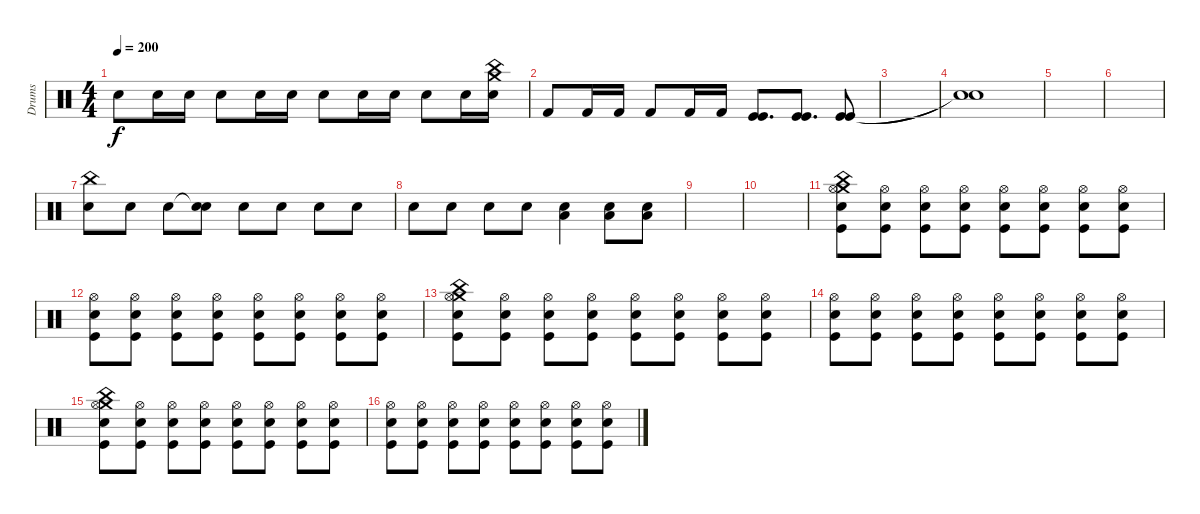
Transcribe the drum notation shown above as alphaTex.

\track ("Drums" "Drums") {instrument percussion}
\staff {score}
\articulation defaults
\ts (4 4)
\tempo 200
\clef neutral
\ks c "Snare (hit) 2".8{dy f} "Snare (hit) 2".16 "Snare (hit) 2".16 "Snare (hit) 2".8 "Snare (hit) 2".16 "Snare (hit) 2".16 "Snare (hit) 2".8 "Snare (hit) 2".16 "Snare (hit) 2".16 "Snare (hit) 2".8 "Snare (hit) 2".16
("Snare (hit) 2" "Crash medium (hit)" "China (hit)").16 |
"Kick (hit) 2".8 "Kick (hit) 2".16 "Kick (hit) 2".16 "Kick (hit) 2".8 "Kick (hit) 2".16 "Kick (hit) 2".16 ("Kick (hit)" "Kick (hit)").8{d} ("Kick (hit)" "Kick (hit)").8{d} ("Kick (hit)" "Kick (hit)").8 |
|
("Snare (hit)"{t} "Snare (hit)"{t}).1 |
|
|
("China (hit)" "Snare (hit) 2").8 "Snare (hit) 2".8 "Snare (hit) 2".8 ("Snare (hit)"{t} "Snare (hit) 2").8 "Snare (hit) 2".8 "Snare (hit) 2".8 "Snare (hit) 2".8 "Snare (hit) 2".8 |
"Snare (hit) 2".8 "Snare (hit) 2".8 "Snare (hit) 2".8 "Snare (hit) 2".8 ("Electric Snare (hit)" "Low Floor Tom (hit)").4 ("Electric Snare (hit)" "Low Floor Tom (hit)").8 ("Electric Snare (hit)" "Low Floor Tom (hit)").8 |
|
|
("Electric Snare (hit)" "China (hit)" "Crash medium (hit)" "Hi-Hat (open)" "Kick (hit)").8 ("Electric Snare (hit)" "Hi-Hat (open)" "Kick (hit)").8 ("Electric Snare (hit)" "Hi-Hat (open)" "Kick (hit)").8 ("Electric Snare (hit)" "Hi-Hat (open)" "Kick (hit)").8 ("Electric Snare (hit)" "Hi-Hat (open)" "Kick (hit)").8 ("Electric Snare (hit)" "Hi-Hat (open)" "Kick (hit)").8 ("Electric Snare (hit)" "Hi-Hat (open)" "Kick (hit)").8 ("Electric Snare (hit)" "Hi-Hat (open)" "Kick (hit)").8 |
("Electric Snare (hit)" "Hi-Hat (open)" "Kick (hit)").8 ("Electric Snare (hit)" "Hi-Hat (open)" "Kick (hit)").8 ("Electric Snare (hit)" "Hi-Hat (open)" "Kick (hit)").8 ("Electric Snare (hit)" "Hi-Hat (open)" "Kick (hit)").8 ("Electric Snare (hit)" "Hi-Hat (open)" "Kick (hit)").8 ("Electric Snare (hit)" "Hi-Hat (open)" "Kick (hit)").8 ("Electric Snare (hit)" "Hi-Hat (open)" "Kick (hit)").8 ("Electric Snare (hit)" "Hi-Hat (open)" "Kick (hit)").8 |
("Electric Snare (hit)" "China (hit)" "Crash medium (hit)" "Hi-Hat (open)" "Kick (hit)").8 ("Electric Snare (hit)" "Hi-Hat (open)" "Kick (hit)").8 ("Electric Snare (hit)" "Hi-Hat (open)" "Kick (hit)").8 ("Electric Snare (hit)" "Hi-Hat (open)" "Kick (hit)").8 ("Electric Snare (hit)" "Hi-Hat (open)" "Kick (hit)").8 ("Electric Snare (hit)" "Hi-Hat (open)" "Kick (hit)").8 ("Electric Snare (hit)" "Hi-Hat (open)" "Kick (hit)").8 ("Electric Snare (hit)" "Hi-Hat (open)" "Kick (hit)").8 |
("Electric Snare (hit)" "Hi-Hat (open)" "Kick (hit)").8 ("Electric Snare (hit)" "Hi-Hat (open)" "Kick (hit)").8 ("Electric Snare (hit)" "Hi-Hat (open)" "Kick (hit)").8 ("Electric Snare (hit)" "Hi-Hat (open)" "Kick (hit)").8 ("Electric Snare (hit)" "Hi-Hat (open)" "Kick (hit)").8 ("Electric Snare (hit)" "Hi-Hat (open)" "Kick (hit)").8 ("Electric Snare (hit)" "Hi-Hat (open)" "Kick (hit)").8 ("Electric Snare (hit)" "Hi-Hat (open)" "Kick (hit)").8 |
("Electric Snare (hit)" "China (hit)" "Crash medium (hit)" "Hi-Hat (open)" "Kick (hit)").8 ("Electric Snare (hit)" "Hi-Hat (open)" "Kick (hit)").8 ("Electric Snare (hit)" "Hi-Hat (open)" "Kick (hit)").8 ("Electric Snare (hit)" "Hi-Hat (open)" "Kick (hit)").8 ("Electric Snare (hit)" "Hi-Hat (open)" "Kick (hit)").8 ("Electric Snare (hit)" "Hi-Hat (open)" "Kick (hit)").8 ("Electric Snare (hit)" "Hi-Hat (open)" "Kick (hit)").8 ("Electric Snare (hit)" "Hi-Hat (open)" "Kick (hit)").8 |
("Electric Snare (hit)" "Hi-Hat (open)" "Kick (hit)").8 ("Electric Snare (hit)" "Hi-Hat (open)" "Kick (hit)").8 ("Electric Snare (hit)" "Hi-Hat (open)" "Kick (hit)").8 ("Electric Snare (hit)" "Hi-Hat (open)" "Kick (hit)").8 ("Electric Snare (hit)" "Hi-Hat (open)" "Kick (hit)").8 ("Electric Snare (hit)" "Hi-Hat (open)" "Kick (hit)").8 ("Electric Snare (hit)" "Hi-Hat (open)" "Kick (hit)").8 ("Electric Snare (hit)" "Hi-Hat (open)" "Kick (hit)").8
